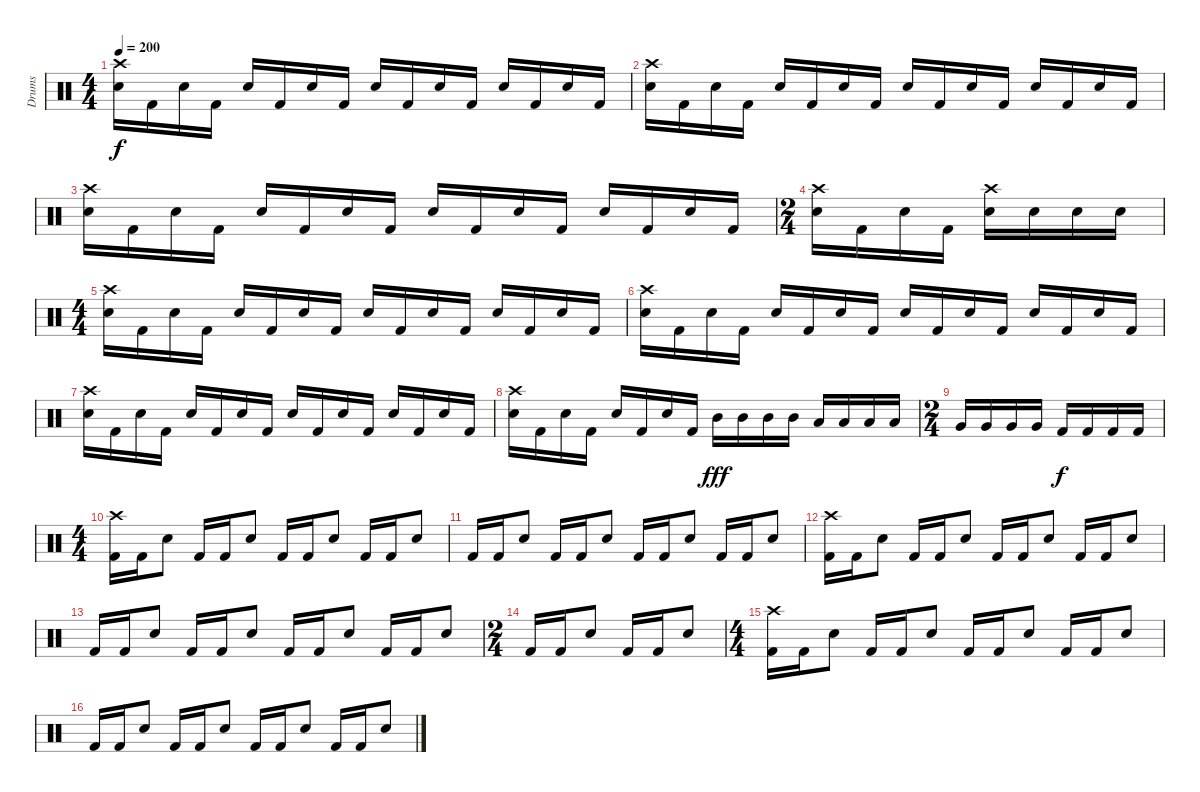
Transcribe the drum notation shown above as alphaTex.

\track ("Drums" "Drums") {instrument percussion}
\staff {score}
\articulation defaults
\ts (4 4)
\tempo 200
\clef neutral
\ks c
("Crash high (hit)" "Snare (hit) 2").16{dy f} "Kick (hit) 2".16 "Snare (hit) 2".16 "Kick (hit) 2".16 "Snare (hit) 2".16 "Kick (hit) 2".16 "Snare (hit) 2".16 "Kick (hit) 2".16 "Snare (hit) 2".16 "Kick (hit) 2".16 "Snare (hit) 2".16 "Kick (hit) 2".16 "Snare (hit) 2".16 "Kick (hit) 2".16 "Snare (hit) 2".16 "Kick (hit) 2".16 |
("Crash high (hit)" "Snare (hit) 2").16 "Kick (hit) 2".16 "Snare (hit) 2".16 "Kick (hit) 2".16 "Snare (hit) 2".16 "Kick (hit) 2".16 "Snare (hit) 2".16 "Kick (hit) 2".16 "Snare (hit) 2".16 "Kick (hit) 2".16 "Snare (hit) 2".16 "Kick (hit) 2".16 "Snare (hit) 2".16 "Kick (hit) 2".16 "Snare (hit) 2".16 "Kick (hit) 2".16 |
("Crash high (hit)" "Snare (hit) 2").16 "Kick (hit) 2".16 "Snare (hit) 2".16 "Kick (hit) 2".16 "Snare (hit) 2".16 "Kick (hit) 2".16 "Snare (hit) 2".16 "Kick (hit) 2".16 "Snare (hit) 2".16 "Kick (hit) 2".16 "Snare (hit) 2".16 "Kick (hit) 2".16 "Snare (hit) 2".16 "Kick (hit) 2".16 "Snare (hit) 2".16 "Kick (hit) 2".16 |
\ts (2 4)
("Crash high (hit)" "Snare (hit) 2").16 "Kick (hit) 2".16 "Snare (hit) 2".16 "Kick (hit) 2".16 ("Crash high (hit)" "Snare (hit) 2").16 "Snare (hit) 2".16 "Snare (hit) 2".16 "Snare (hit) 2".16 |
\ts (4 4)
("Crash high (hit)" "Snare (hit) 2").16 "Kick (hit) 2".16 "Snare (hit) 2".16 "Kick (hit) 2".16 "Snare (hit) 2".16 "Kick (hit) 2".16 "Snare (hit) 2".16 "Kick (hit) 2".16 "Snare (hit) 2".16 "Kick (hit) 2".16 "Snare (hit) 2".16 "Kick (hit) 2".16 "Snare (hit) 2".16 "Kick (hit) 2".16 "Snare (hit) 2".16 "Kick (hit) 2".16 |
("Crash high (hit)" "Snare (hit) 2").16 "Kick (hit) 2".16 "Snare (hit) 2".16 "Kick (hit) 2".16 "Snare (hit) 2".16 "Kick (hit) 2".16 "Snare (hit) 2".16 "Kick (hit) 2".16 "Snare (hit) 2".16 "Kick (hit) 2".16 "Snare (hit) 2".16 "Kick (hit) 2".16 "Snare (hit) 2".16 "Kick (hit) 2".16 "Snare (hit) 2".16 "Kick (hit) 2".16 |
("Crash high (hit)" "Snare (hit) 2").16 "Kick (hit) 2".16 "Snare (hit) 2".16 "Kick (hit) 2".16 "Snare (hit) 2".16 "Kick (hit) 2".16 "Snare (hit) 2".16 "Kick (hit) 2".16 "Snare (hit) 2".16 "Kick (hit) 2".16 "Snare (hit) 2".16 "Kick (hit) 2".16 "Snare (hit) 2".16 "Kick (hit) 2".16 "Snare (hit) 2".16 "Kick (hit) 2".16 |
("Crash high (hit)" "Snare (hit) 2").16 "Kick (hit) 2".16 "Snare (hit) 2".16 "Kick (hit) 2".16 "Snare (hit) 2".16 "Kick (hit) 2".16 "Snare (hit) 2".16 "Kick (hit) 2".16 "Mid Tom (hit)".16{dy fff} "Mid Tom (hit)".16 "Mid Tom (hit)".16 "Mid Tom (hit)".16 "Low Tom (hit)".16 "Low Tom (hit)".16 "Low Tom (hit)".16 "Low Tom (hit)".16 |
\ts (2 4)
"Very Low Tom (hit)".16 "Very Low Tom (hit)".16 "Very Low Tom (hit)".16 "Very Low Tom (hit)".16 "Kick (hit) 2".16{dy f} "Kick (hit) 2".16 "Kick (hit) 2".16 "Kick (hit) 2".16 |
\ts (4 4)
("Crash high (hit)" "Kick (hit) 2").16 "Kick (hit) 2".16 "Snare (hit) 2".8 "Kick (hit) 2".16 "Kick (hit) 2".16 "Snare (hit) 2".8 "Kick (hit) 2".16 "Kick (hit) 2".16 "Snare (hit) 2".8 "Kick (hit) 2".16 "Kick (hit) 2".16 "Snare (hit) 2".8 |
"Kick (hit) 2".16 "Kick (hit) 2".16 "Snare (hit) 2".8 "Kick (hit) 2".16 "Kick (hit) 2".16 "Snare (hit) 2".8 "Kick (hit) 2".16 "Kick (hit) 2".16 "Snare (hit) 2".8 "Kick (hit) 2".16 "Kick (hit) 2".16 "Snare (hit) 2".8 |
("Crash high (hit)" "Kick (hit) 2").16 "Kick (hit) 2".16 "Snare (hit) 2".8 "Kick (hit) 2".16 "Kick (hit) 2".16 "Snare (hit) 2".8 "Kick (hit) 2".16 "Kick (hit) 2".16 "Snare (hit) 2".8 "Kick (hit) 2".16 "Kick (hit) 2".16 "Snare (hit) 2".8 |
"Kick (hit) 2".16 "Kick (hit) 2".16 "Snare (hit) 2".8 "Kick (hit) 2".16 "Kick (hit) 2".16 "Snare (hit) 2".8 "Kick (hit) 2".16 "Kick (hit) 2".16 "Snare (hit) 2".8 "Kick (hit) 2".16 "Kick (hit) 2".16 "Snare (hit) 2".8 |
\ts (2 4)
"Kick (hit) 2".16 "Kick (hit) 2".16 "Snare (hit) 2".8 "Kick (hit) 2".16 "Kick (hit) 2".16 "Snare (hit) 2".8 |
\ts (4 4)
("Crash high (hit)" "Kick (hit) 2").16 "Kick (hit) 2".16 "Snare (hit) 2".8 "Kick (hit) 2".16 "Kick (hit) 2".16 "Snare (hit) 2".8 "Kick (hit) 2".16 "Kick (hit) 2".16 "Snare (hit) 2".8 "Kick (hit) 2".16 "Kick (hit) 2".16 "Snare (hit) 2".8 |
"Kick (hit) 2".16 "Kick (hit) 2".16 "Snare (hit) 2".8 "Kick (hit) 2".16 "Kick (hit) 2".16 "Snare (hit) 2".8 "Kick (hit) 2".16 "Kick (hit) 2".16 "Snare (hit) 2".8 "Kick (hit) 2".16 "Kick (hit) 2".16 "Snare (hit) 2".8
